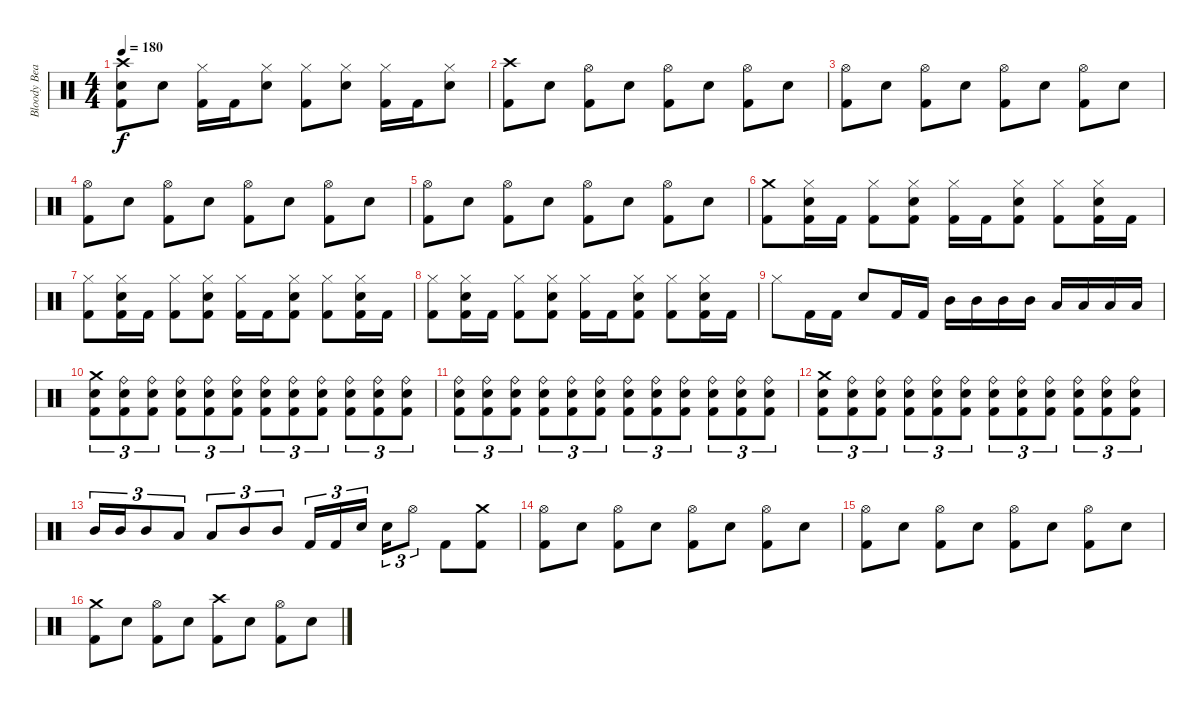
\track ("Bloody Beater" "Bloody Bea") {instrument percussion}
\staff {score}
\articulation defaults
\ts (4 4)
\tempo 180
\clef neutral
\ks c
("Crash high (hit)" "Snare (hit) 2" "Kick (hit) 2").8{dy f} "Snare (hit) 2".8 ("Hi-Hat (closed)" "Kick (hit) 2").16 "Kick (hit) 2".16 ("Hi-Hat (closed)" "Snare (hit) 2").8 ("Hi-Hat (closed)" "Kick (hit) 2").8 ("Hi-Hat (closed)" "Snare (hit) 2").8 ("Hi-Hat (closed)" "Kick (hit) 2").16 "Kick (hit) 2".16 ("Hi-Hat (closed)" "Snare (hit) 2").8 |
("Crash high (hit)" "Kick (hit) 2").8 "Snare (hit) 2".8 ("Hi-Hat (open)" "Kick (hit) 2").8 "Snare (hit) 2".8 ("Hi-Hat (open)" "Kick (hit) 2").8 "Snare (hit) 2".8 ("Hi-Hat (open)" "Kick (hit) 2").8 "Snare (hit) 2".8 |
("Hi-Hat (open)" "Kick (hit) 2").8 "Snare (hit) 2".8 ("Hi-Hat (open)" "Kick (hit) 2").8 "Snare (hit) 2".8 ("Hi-Hat (open)" "Kick (hit) 2").8 "Snare (hit) 2".8 ("Hi-Hat (open)" "Kick (hit) 2").8 "Snare (hit) 2".8 |
("Hi-Hat (open)" "Kick (hit) 2").8 "Snare (hit) 2".8 ("Hi-Hat (open)" "Kick (hit) 2").8 "Snare (hit) 2".8 ("Hi-Hat (open)" "Kick (hit) 2").8 "Snare (hit) 2".8 ("Hi-Hat (open)" "Kick (hit) 2").8 "Snare (hit) 2".8 |
("Hi-Hat (open)" "Kick (hit) 2").8 "Snare (hit) 2".8 ("Hi-Hat (open)" "Kick (hit) 2").8 "Snare (hit) 2".8 ("Hi-Hat (open)" "Kick (hit) 2").8 "Snare (hit) 2".8 ("Hi-Hat (open)" "Kick (hit) 2").8 "Snare (hit) 2".8 |
("Crash medium (hit)" "Kick (hit) 2").8 ("Hi-Hat (closed)" "Snare (hit) 2" "Kick (hit) 2").16 "Kick (hit) 2".16 ("Hi-Hat (closed)" "Kick (hit) 2").8 ("Hi-Hat (closed)" "Snare (hit) 2" "Kick (hit) 2").8 ("Hi-Hat (closed)" "Kick (hit) 2").16 "Kick (hit) 2".16 ("Hi-Hat (closed)" "Snare (hit) 2" "Kick (hit) 2").8 ("Hi-Hat (closed)" "Kick (hit) 2").8 ("Hi-Hat (closed)" "Snare (hit) 2" "Kick (hit) 2").16 "Kick (hit) 2".16 |
("Hi-Hat (closed)" "Kick (hit) 2").8 ("Hi-Hat (closed)" "Snare (hit) 2" "Kick (hit) 2").16 "Kick (hit) 2".16 ("Hi-Hat (closed)" "Kick (hit) 2").8 ("Hi-Hat (closed)" "Snare (hit) 2" "Kick (hit) 2").8 ("Hi-Hat (closed)" "Kick (hit) 2").16 "Kick (hit) 2".16 ("Hi-Hat (closed)" "Snare (hit) 2" "Kick (hit) 2").8 ("Hi-Hat (closed)" "Kick (hit) 2").8 ("Hi-Hat (closed)" "Snare (hit) 2" "Kick (hit) 2").16 "Kick (hit) 2".16 |
("Hi-Hat (closed)" "Kick (hit) 2").8 ("Hi-Hat (closed)" "Snare (hit) 2" "Kick (hit) 2").16 "Kick (hit) 2".16 ("Hi-Hat (closed)" "Kick (hit) 2").8 ("Hi-Hat (closed)" "Snare (hit) 2" "Kick (hit) 2").8 ("Hi-Hat (closed)" "Kick (hit) 2").16 "Kick (hit) 2".16 ("Hi-Hat (closed)" "Snare (hit) 2" "Kick (hit) 2").8 ("Hi-Hat (closed)" "Kick (hit) 2").8 ("Hi-Hat (closed)" "Snare (hit) 2" "Kick (hit) 2").16 "Kick (hit) 2".16 |
"Hi-Hat (closed)".8 "Kick (hit) 2".16 "Kick (hit) 2".16 "Snare (hit) 2".8 "Kick (hit) 2".16 "Kick (hit) 2".16 "Mid Tom (hit)".16 "Mid Tom (hit)".16 "Mid Tom (hit)".16 "Mid Tom (hit)".16 "Low Tom (hit)".16 "Low Tom (hit)".16 "Low Tom (hit)".16 "Low Tom (hit)".16 |
("Crash medium (hit)" "Snare (hit) 2" "Kick (hit) 2").8{tu (3 2)} ("Ride (bell)" "Snare (hit) 2" "Kick (hit) 2").8{tu (3 2)} ("Ride (bell)" "Snare (hit) 2" "Kick (hit) 2").8{tu (3 2)} ("Ride (bell)" "Snare (hit) 2" "Kick (hit) 2").8{tu (3 2)} ("Ride (bell)" "Snare (hit) 2" "Kick (hit) 2").8{tu (3 2)} ("Ride (bell)" "Snare (hit) 2" "Kick (hit) 2").8{tu (3 2)} ("Ride (bell)" "Snare (hit) 2" "Kick (hit) 2").8{tu (3 2)} ("Ride (bell)" "Snare (hit) 2" "Kick (hit) 2").8{tu (3 2)} ("Ride (bell)" "Snare (hit) 2" "Kick (hit) 2").8{tu (3 2)} ("Ride (bell)" "Snare (hit) 2" "Kick (hit) 2").8{tu (3 2)} ("Ride (bell)" "Snare (hit) 2" "Kick (hit) 2").8{tu (3 2)} ("Ride (bell)" "Snare (hit) 2" "Kick (hit) 2").8{tu (3 2)} |
("Ride (bell)" "Snare (hit) 2" "Kick (hit) 2").8{tu (3 2)} ("Ride (bell)" "Snare (hit) 2" "Kick (hit) 2").8{tu (3 2)} ("Ride (bell)" "Snare (hit) 2" "Kick (hit) 2").8{tu (3 2)} ("Ride (bell)" "Snare (hit) 2" "Kick (hit) 2").8{tu (3 2)} ("Ride (bell)" "Snare (hit) 2" "Kick (hit) 2").8{tu (3 2)} ("Ride (bell)" "Snare (hit) 2" "Kick (hit) 2").8{tu (3 2)} ("Ride (bell)" "Snare (hit) 2" "Kick (hit) 2").8{tu (3 2)} ("Ride (bell)" "Snare (hit) 2" "Kick (hit) 2").8{tu (3 2)} ("Ride (bell)" "Snare (hit) 2" "Kick (hit) 2").8{tu (3 2)} ("Ride (bell)" "Snare (hit) 2" "Kick (hit) 2").8{tu (3 2)} ("Ride (bell)" "Snare (hit) 2" "Kick (hit) 2").8{tu (3 2)} ("Ride (bell)" "Snare (hit) 2" "Kick (hit) 2").8{tu (3 2)} |
("Crash medium (hit)" "Snare (hit) 2" "Kick (hit) 2").8{tu (3 2)} ("Ride (bell)" "Snare (hit) 2" "Kick (hit) 2").8{tu (3 2)} ("Ride (bell)" "Snare (hit) 2" "Kick (hit) 2").8{tu (3 2)} ("Ride (bell)" "Snare (hit) 2" "Kick (hit) 2").8{tu (3 2)} ("Ride (bell)" "Snare (hit) 2" "Kick (hit) 2").8{tu (3 2)} ("Ride (bell)" "Snare (hit) 2" "Kick (hit) 2").8{tu (3 2)} ("Ride (bell)" "Snare (hit) 2" "Kick (hit) 2").8{tu (3 2)} ("Ride (bell)" "Snare (hit) 2" "Kick (hit) 2").8{tu (3 2)} ("Ride (bell)" "Snare (hit) 2" "Kick (hit) 2").8{tu (3 2)} ("Ride (bell)" "Snare (hit) 2" "Kick (hit) 2").8{tu (3 2)} ("Ride (bell)" "Snare (hit) 2" "Kick (hit) 2").8{tu (3 2)} ("Ride (bell)" "Snare (hit) 2" "Kick (hit) 2").8{tu (3 2)} |
"Mid Tom (hit)".16{tu (3 2)} "Mid Tom (hit)".16{tu (3 2)} "Mid Tom (hit)".8{tu (3 2)} "Low Tom (hit)".8{tu (3 2)} "Low Tom (hit)".8{tu (3 2)} "Mid Tom (hit)".8{tu (3 2)} "Mid Tom (hit)".8{tu (3 2)} "Kick (hit) 2".16{tu (3 2)} "Kick (hit) 2".16{tu (3 2)} "Snare (hit) 2".16{tu (3 2)} "Snare (hit) 2".16{tu (3 2)} "Hi-Hat (open)".8{tu (3 2)} "Kick (hit) 2".8 ("Crash medium (hit)" "Kick (hit) 2").8 |
("Hi-Hat (open)" "Kick (hit) 2").8 "Snare (hit) 2".8 ("Hi-Hat (open)" "Kick (hit) 2").8 "Snare (hit) 2".8 ("Hi-Hat (open)" "Kick (hit) 2").8 "Snare (hit) 2".8 ("Hi-Hat (open)" "Kick (hit) 2").8 "Snare (hit) 2".8 |
("Hi-Hat (open)" "Kick (hit) 2").8 "Snare (hit) 2".8 ("Hi-Hat (open)" "Kick (hit) 2").8 "Snare (hit) 2".8 ("Hi-Hat (open)" "Kick (hit) 2").8 "Snare (hit) 2".8 ("Hi-Hat (open)" "Kick (hit) 2").8 "Snare (hit) 2".8 |
("Crash medium (hit)" "Kick (hit) 2").8 "Snare (hit) 2".8 ("Hi-Hat (open)" "Kick (hit) 2").8 "Snare (hit) 2".8 ("Crash high (hit)" "Kick (hit) 2").8 "Snare (hit) 2".8 ("Hi-Hat (open)" "Kick (hit) 2").8 "Snare (hit) 2".8
